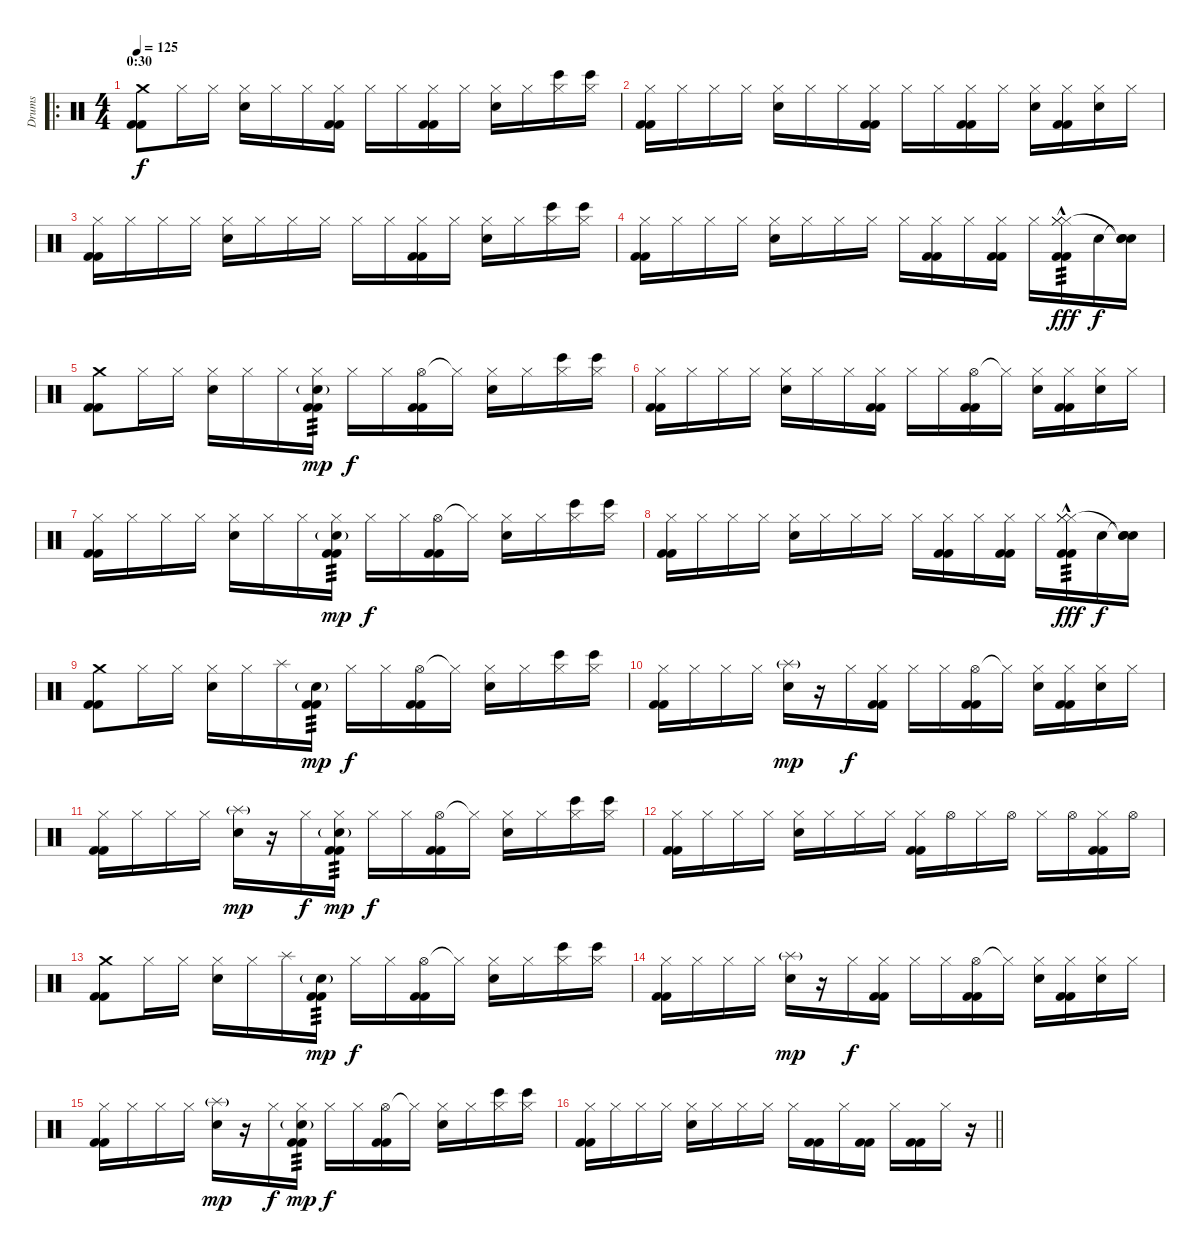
\track ("Drums" "Drums") {instrument percussion}
\staff {score}
\articulation defaults
\ro
\ts (4 4)
\section ("" "0:30")
\tempo 125
\clef neutral
\ks c
("Crash medium (hit)" "Kick (hit) 2" "Kick (hit) 2").8{dy f} "Hi-Hat (closed)".16 "Hi-Hat (closed)".16 ("Hi-Hat (closed)" "Electric Snare (hit)").16 "Hi-Hat (closed)".16 "Hi-Hat (closed)".16 ("Hi-Hat (closed)" "Kick (hit) 2" "Kick (hit) 2").16 "Hi-Hat (closed)".16 "Hi-Hat (closed)".16 ("Hi-Hat (closed)" "Kick (hit) 2" "Kick (hit) 2").16 "Hi-Hat (closed)".16 ("Hi-Hat (closed)" "Electric Snare (hit)").16 "Hi-Hat (closed)".16 ("Bongo High (hit)" "Hi-Hat (closed)").16 ("Bongo High (hit)" "Hi-Hat (closed)").16 |
("Hi-Hat (closed)" "Kick (hit) 2" "Kick (hit) 2").16 "Hi-Hat (closed)".16 "Hi-Hat (closed)".16 "Hi-Hat (closed)".16 ("Hi-Hat (closed)" "Electric Snare (hit)").16 "Hi-Hat (closed)".16 "Hi-Hat (closed)".16 ("Hi-Hat (closed)" "Kick (hit) 2" "Kick (hit) 2").16 "Hi-Hat (closed)".16 "Hi-Hat (closed)".16 ("Hi-Hat (closed)" "Kick (hit) 2" "Kick (hit) 2").16 "Hi-Hat (closed)".16 ("Hi-Hat (closed)" "Electric Snare (hit)").16 ("Hi-Hat (closed)" "Kick (hit) 2" "Kick (hit) 2").16 ("Hand Clap (hit)" "Hi-Hat (closed)").16 "Hi-Hat (closed)".16 |
("Hi-Hat (closed)" "Kick (hit) 2" "Kick (hit) 2").16 "Hi-Hat (closed)".16 "Hi-Hat (closed)".16 "Hi-Hat (closed)".16 ("Hi-Hat (closed)" "Electric Snare (hit)").16 "Hi-Hat (closed)".16 "Hi-Hat (closed)".16 "Hi-Hat (closed)".16 "Hi-Hat (closed)".16 "Hi-Hat (closed)".16 ("Hi-Hat (closed)" "Kick (hit) 2" "Kick (hit) 2").16 "Hi-Hat (closed)".16 ("Hi-Hat (closed)" "Electric Snare (hit)").16 "Hi-Hat (closed)".16 ("Bongo High (hit)" "Hi-Hat (closed)").16 ("Bongo High (hit)" "Hi-Hat (closed)").16 |
("Hi-Hat (closed)" "Kick (hit) 2" "Kick (hit) 2").16 "Hi-Hat (closed)".16 "Hi-Hat (closed)".16 "Hi-Hat (closed)".16 ("Hi-Hat (closed)" "Electric Snare (hit)").16 "Hi-Hat (closed)".16 "Hi-Hat (closed)".16 "Hi-Hat (closed)".16 "Hi-Hat (closed)".16 ("Hi-Hat (closed)" "Kick (hit) 2" "Kick (hit) 2").16 "Hi-Hat (closed)".16 ("Hi-Hat (closed)" "Kick (hit) 2" "Kick (hit) 2").16 "Hi-Hat (closed)".16 ("Hi-Hat (closed)"{hac} "Hi-Hat (closed)"{hac} "Hi-Hat (closed)" "Kick (hit) 2" "Kick (hit) 2").16{tp 3 dy fff} "Electric Snare (hit)".16{dy f} ("Snare (hit)"{t} "Snare (hit)"{t} "Electric Snare (hit)").16 |
("Crash medium (hit)" "Kick (hit) 2" "Kick (hit) 2").8 "Hi-Hat (closed)".16 "Hi-Hat (closed)".16 ("Hi-Hat (closed)" "Electric Snare (hit)").16 "Hi-Hat (closed)".16 "Hi-Hat (closed)".16 ("Hi-Hat (closed)" "Electric Snare (hit)"{g} "Kick (hit) 2" "Kick (hit) 2").16{tp 3 dy mp} "Hi-Hat (closed)".16{dy f} "Hi-Hat (closed)".16 ("Hi-Hat (open)" "Kick (hit) 2" "Kick (hit) 2").16 "Hi-Hat (closed)"{t}.16 ("Hi-Hat (closed)" "Electric Snare (hit)").16 "Hi-Hat (closed)".16 ("Bongo High (hit)" "Hi-Hat (closed)").16 ("Bongo High (hit)" "Hi-Hat (closed)").16 |
("Hi-Hat (closed)" "Kick (hit) 2" "Kick (hit) 2").16 "Hi-Hat (closed)".16 "Hi-Hat (closed)".16 "Hi-Hat (closed)".16 ("Hi-Hat (closed)" "Electric Snare (hit)").16 "Hi-Hat (closed)".16 "Hi-Hat (closed)".16 ("Hi-Hat (closed)" "Kick (hit) 2" "Kick (hit) 2").16 "Hi-Hat (closed)".16 "Hi-Hat (closed)".16 ("Hi-Hat (open)" "Kick (hit) 2" "Kick (hit) 2").16 "Hi-Hat (closed)"{t}.16 ("Hi-Hat (closed)" "Electric Snare (hit)").16 ("Hi-Hat (closed)" "Kick (hit) 2" "Kick (hit) 2").16 ("Hand Clap (hit)" "Hi-Hat (closed)").16 "Hi-Hat (closed)".16 |
("Hi-Hat (closed)" "Kick (hit) 2" "Kick (hit) 2").16 "Hi-Hat (closed)".16 "Hi-Hat (closed)".16 "Hi-Hat (closed)".16 ("Hi-Hat (closed)" "Electric Snare (hit)").16 "Hi-Hat (closed)".16 "Hi-Hat (closed)".16 ("Hi-Hat (closed)" "Electric Snare (hit)"{g} "Kick (hit) 2" "Kick (hit) 2").16{tp 3 dy mp} "Hi-Hat (closed)".16{dy f} "Hi-Hat (closed)".16 ("Hi-Hat (open)" "Kick (hit) 2" "Kick (hit) 2").16 "Hi-Hat (closed)"{t}.16 ("Hi-Hat (closed)" "Electric Snare (hit)").16 "Hi-Hat (closed)".16 ("Bongo High (hit)" "Hi-Hat (closed)").16 ("Bongo High (hit)" "Hi-Hat (closed)").16 |
("Hi-Hat (closed)" "Kick (hit) 2" "Kick (hit) 2").16 "Hi-Hat (closed)".16 "Hi-Hat (closed)".16 "Hi-Hat (closed)".16 ("Hi-Hat (closed)" "Electric Snare (hit)").16 "Hi-Hat (closed)".16 "Hi-Hat (closed)".16 "Hi-Hat (closed)".16 "Hi-Hat (closed)".16 ("Hi-Hat (closed)" "Kick (hit) 2" "Kick (hit) 2").16 "Hi-Hat (closed)".16 ("Hi-Hat (closed)" "Kick (hit) 2" "Kick (hit) 2").16 "Hi-Hat (closed)".16 ("Hi-Hat (closed)"{hac} "Hi-Hat (closed)"{hac} "Hi-Hat (closed)" "Kick (hit) 2" "Kick (hit) 2").16{tp 3 dy fff} "Electric Snare (hit)".16{dy f} ("Snare (hit)"{t} "Snare (hit)"{t} "Electric Snare (hit)").16 |
("Crash medium (hit)" "Kick (hit) 2" "Kick (hit) 2").8 "Hi-Hat (closed)".16 "Hi-Hat (closed)".16 ("Hi-Hat (closed)" "Electric Snare (hit)").16 "Hi-Hat (closed)".16 "Splash (hit)".16 ("Electric Snare (hit)"{g} "Kick (hit) 2" "Kick (hit) 2").16{tp 3 dy mp} "Hi-Hat (closed)".16{dy f} "Hi-Hat (closed)".16 ("Hi-Hat (open)" "Kick (hit) 2" "Kick (hit) 2").16 "Hi-Hat (closed)"{t}.16 ("Hi-Hat (closed)" "Electric Snare (hit)").16 "Hi-Hat (closed)".16 ("Bongo High (hit)" "Hi-Hat (closed)").16 ("Bongo High (hit)" "Hi-Hat (closed)").16 |
("Hi-Hat (closed)" "Kick (hit) 2" "Kick (hit) 2").16 "Hi-Hat (closed)".16 "Hi-Hat (closed)".16 "Hi-Hat (closed)".16 ("Splash (hit)"{g} "Electric Snare (hit)").16{dy mp} r.16 "Hi-Hat (closed)".16{dy f} ("Hi-Hat (closed)" "Kick (hit) 2" "Kick (hit) 2").16 "Hi-Hat (closed)".16 "Hi-Hat (closed)".16 ("Hi-Hat (open)" "Kick (hit) 2" "Kick (hit) 2").16 "Hi-Hat (closed)"{t}.16 ("Hi-Hat (closed)" "Electric Snare (hit)").16 ("Hi-Hat (closed)" "Kick (hit) 2" "Kick (hit) 2").16 ("Hand Clap (hit)" "Hi-Hat (closed)").16 "Hi-Hat (closed)".16 |
("Hi-Hat (closed)" "Kick (hit) 2" "Kick (hit) 2").16 "Hi-Hat (closed)".16 "Hi-Hat (closed)".16 "Hi-Hat (closed)".16 ("Splash (hit)"{g} "Electric Snare (hit)").16{dy mp} r.16 "Hi-Hat (closed)".16{dy f} ("Hi-Hat (closed)" "Electric Snare (hit)"{g} "Kick (hit) 2" "Kick (hit) 2").16{tp 3 dy mp} "Hi-Hat (closed)".16{dy f} "Hi-Hat (closed)".16 ("Hi-Hat (open)" "Kick (hit) 2" "Kick (hit) 2").16 "Hi-Hat (closed)"{t}.16 ("Hi-Hat (closed)" "Electric Snare (hit)").16 "Hi-Hat (closed)".16 ("Bongo High (hit)" "Hi-Hat (closed)").16 ("Bongo High (hit)" "Hi-Hat (closed)").16 |
("Hi-Hat (closed)" "Kick (hit) 2" "Kick (hit) 2").16 "Hi-Hat (closed)".16 "Hi-Hat (closed)".16 "Hi-Hat (closed)".16 ("Hi-Hat (closed)" "Electric Snare (hit)").16 "Hi-Hat (closed)".16 "Hi-Hat (closed)".16 "Hi-Hat (closed)".16 ("Hi-Hat (closed)" "Kick (hit) 2" "Kick (hit) 2").16 "Hi-Hat (open)".16 "Hi-Hat (closed)".16 "Hi-Hat (open)".16 "Hi-Hat (closed)".16 "Hi-Hat (open)".16 ("Hi-Hat (closed)" "Kick (hit) 2" "Kick (hit) 2").16 "Hi-Hat (open)".16 |
("Crash medium (hit)" "Kick (hit) 2" "Kick (hit) 2").8 "Hi-Hat (closed)".16 "Hi-Hat (closed)".16 ("Hi-Hat (closed)" "Electric Snare (hit)").16 "Hi-Hat (closed)".16 "Splash (hit)".16 ("Electric Snare (hit)"{g} "Kick (hit) 2" "Kick (hit) 2").16{tp 3 dy mp} "Hi-Hat (closed)".16{dy f} "Hi-Hat (closed)".16 ("Hi-Hat (open)" "Kick (hit) 2" "Kick (hit) 2").16 "Hi-Hat (closed)"{t}.16 ("Hi-Hat (closed)" "Electric Snare (hit)").16 "Hi-Hat (closed)".16 ("Bongo High (hit)" "Hi-Hat (closed)").16 ("Bongo High (hit)" "Hi-Hat (closed)").16 |
("Hi-Hat (closed)" "Kick (hit) 2" "Kick (hit) 2").16 "Hi-Hat (closed)".16 "Hi-Hat (closed)".16 "Hi-Hat (closed)".16 ("Splash (hit)"{g} "Electric Snare (hit)").16{dy mp} r.16 "Hi-Hat (closed)".16{dy f} ("Hi-Hat (closed)" "Kick (hit) 2" "Kick (hit) 2").16 "Hi-Hat (closed)".16 "Hi-Hat (closed)".16 ("Hi-Hat (open)" "Kick (hit) 2" "Kick (hit) 2").16 "Hi-Hat (closed)"{t}.16 ("Hi-Hat (closed)" "Electric Snare (hit)").16 ("Hi-Hat (closed)" "Kick (hit) 2" "Kick (hit) 2").16 ("Hand Clap (hit)" "Hi-Hat (closed)").16 "Hi-Hat (closed)".16 |
("Hi-Hat (closed)" "Kick (hit) 2" "Kick (hit) 2").16 "Hi-Hat (closed)".16 "Hi-Hat (closed)".16 "Hi-Hat (closed)".16 ("Splash (hit)"{g} "Electric Snare (hit)").16{dy mp} r.16 "Hi-Hat (closed)".16{dy f} ("Hi-Hat (closed)" "Electric Snare (hit)"{g} "Kick (hit) 2" "Kick (hit) 2").16{tp 3 dy mp} "Hi-Hat (closed)".16{dy f} "Hi-Hat (closed)".16 ("Hi-Hat (open)" "Kick (hit) 2" "Kick (hit) 2").16 "Hi-Hat (closed)"{t}.16 ("Hi-Hat (closed)" "Electric Snare (hit)").16 "Hi-Hat (closed)".16 ("Bongo High (hit)" "Hi-Hat (closed)").16 ("Bongo High (hit)" "Hi-Hat (closed)").16 |
\barLineRight lightlight
("Hi-Hat (closed)" "Kick (hit) 2" "Kick (hit) 2").16 "Hi-Hat (closed)".16 "Hi-Hat (closed)".16 "Hi-Hat (closed)".16 ("Hi-Hat (closed)" "Electric Snare (hit)").16 "Hi-Hat (closed)".16 "Hi-Hat (closed)".16 "Hi-Hat (closed)".16 "Hi-Hat (closed)".16 ("Kick (hit) 2" "Kick (hit) 2").16 "Hi-Hat (closed)".16 ("Kick (hit) 2" "Kick (hit) 2").16 "Hi-Hat (closed)".16 ("Kick (hit) 2" "Kick (hit) 2").16 "Hi-Hat (closed)".16 r.16
